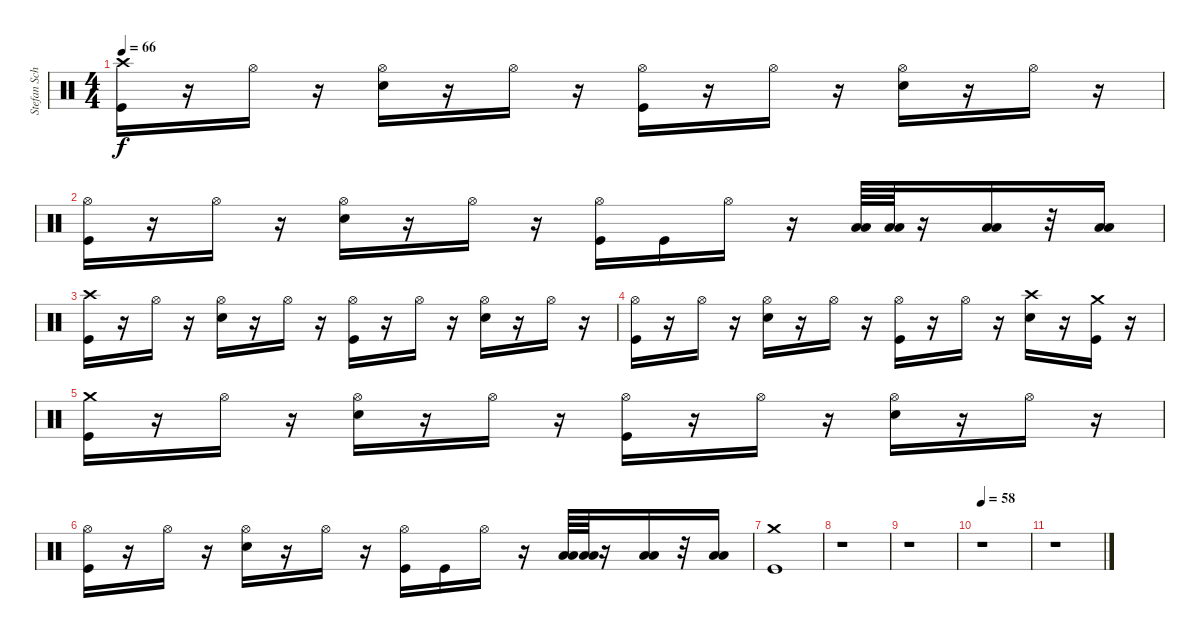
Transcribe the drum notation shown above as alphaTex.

\track ("Stefan Schwarzmann" "Stefan Sch") {instrument percussion}
\staff {score}
\articulation defaults
\ts (4 4)
\tempo 66
\clef neutral
\ks c
("Kick (hit)" "Crash high (hit)").16{dy f} r.16 "Hi-Hat (open)".16 r.16 ("Snare (hit) 2" "Hi-Hat (open)").16 r.16 "Hi-Hat (open)".16 r.16 ("Kick (hit)" "Hi-Hat (open)").16 r.16 "Hi-Hat (open)".16 r.16 ("Snare (hit) 2" "Hi-Hat (open)").16 r.16 "Hi-Hat (open)".16 r.16 |
("Kick (hit)" "Hi-Hat (open)").16 r.16 "Hi-Hat (open)".16 r.16 ("Snare (hit) 2" "Hi-Hat (open)").16 r.16 "Hi-Hat (open)".16 r.16 ("Kick (hit)" "Hi-Hat (open)").16 "Kick (hit)".16 "Hi-Hat (open)".16 r.16 ("Low Floor Tom (hit)" "Low Tom (hit)").64 ("Low Floor Tom (hit)" "Low Tom (hit)").64 r.16 ("Low Floor Tom (hit)" "Low Tom (hit)").16 r.32 ("Low Floor Tom (hit)" "Low Tom (hit)").16 |
("Kick (hit)" "Crash high (hit)").16 r.16 "Hi-Hat (open)".16 r.16 ("Snare (hit) 2" "Hi-Hat (open)").16 r.16 "Hi-Hat (open)".16 r.16 ("Kick (hit)" "Hi-Hat (open)").16 r.16 "Hi-Hat (open)".16 r.16 ("Snare (hit) 2" "Hi-Hat (open)").16 r.16 "Hi-Hat (open)".16 r.16 |
("Kick (hit)" "Hi-Hat (open)").16 r.16 "Hi-Hat (open)".16 r.16 ("Snare (hit) 2" "Hi-Hat (open)").16 r.16 "Hi-Hat (open)".16 r.16 ("Kick (hit)" "Hi-Hat (open)").16 r.16 "Hi-Hat (open)".16 r.16 ("Snare (hit) 2" "Crash high (hit)").16 r.16 ("Kick (hit)" "Crash medium (hit)").16 r.16 |
("Kick (hit)" "Crash medium (hit)").16 r.16 "Hi-Hat (open)".16 r.16 ("Snare (hit) 2" "Hi-Hat (open)").16 r.16 "Hi-Hat (open)".16 r.16 ("Kick (hit)" "Hi-Hat (open)").16 r.16 "Hi-Hat (open)".16 r.16 ("Snare (hit) 2" "Hi-Hat (open)").16 r.16 "Hi-Hat (open)".16 r.16 |
("Kick (hit)" "Hi-Hat (open)").16 r.16 "Hi-Hat (open)".16 r.16 ("Snare (hit) 2" "Hi-Hat (open)").16 r.16 "Hi-Hat (open)".16 r.16 ("Kick (hit)" "Hi-Hat (open)").16 "Kick (hit)".16 "Hi-Hat (open)".16 r.16 ("Low Floor Tom (hit)" "Low Tom (hit)").64 ("Low Floor Tom (hit)" "Low Tom (hit)").64 r.16 ("Low Floor Tom (hit)" "Low Tom (hit)").16 r.32 ("Low Floor Tom (hit)" "Low Tom (hit)").16 |
("Kick (hit)" "Crash medium (hit)").1 |
r.1 |
r.1 |
\tempo 58
r.1 |
r.1
